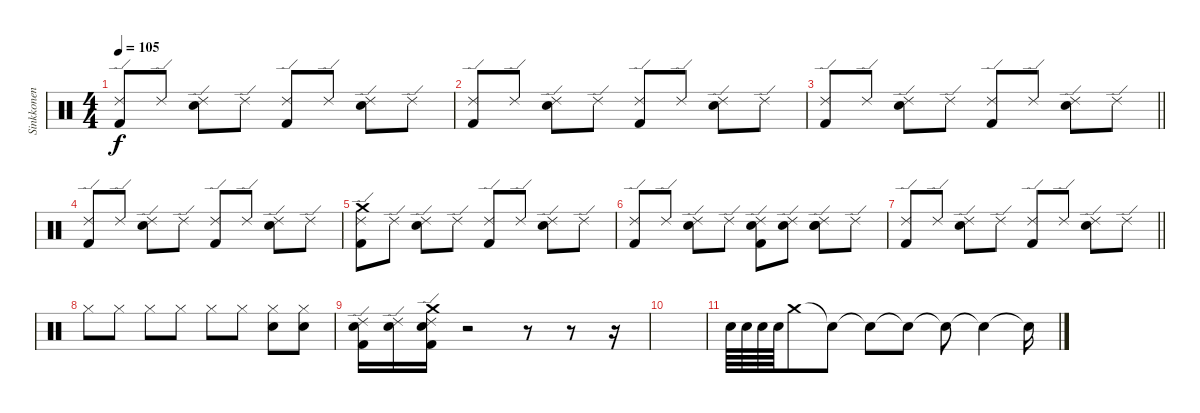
\track ("Sinkkonen" "Sinkkonen") {instrument percussion}
\staff {score}
\articulation defaults
\ts (4 4)
\tempo 105
\clef neutral
\ks c
("Ride (edge) 2" "Kick (hit) 2").8{dy f} "Ride (edge) 2".8 ("Ride (edge) 2" "Electric Snare (hit)").8 "Ride (edge) 2".8 ("Ride (edge) 2" "Kick (hit) 2").8 "Ride (edge) 2".8 ("Ride (edge) 2" "Electric Snare (hit)").8 "Ride (edge) 2".8 |
("Ride (edge) 2" "Kick (hit) 2").8 "Ride (edge) 2".8 ("Ride (edge) 2" "Electric Snare (hit)").8 "Ride (edge) 2".8 ("Ride (edge) 2" "Kick (hit) 2").8 "Ride (edge) 2".8 ("Ride (edge) 2" "Electric Snare (hit)").8 "Ride (edge) 2".8 |
\barLineRight lightlight
("Ride (edge) 2" "Kick (hit) 2").8 "Ride (edge) 2".8 ("Ride (edge) 2" "Electric Snare (hit)").8 "Ride (edge) 2".8 ("Ride (edge) 2" "Kick (hit) 2").8 "Ride (edge) 2".8 ("Ride (edge) 2" "Electric Snare (hit)").8 "Ride (edge) 2".8 |
("Ride (edge) 2" "Kick (hit) 2").8 "Ride (edge) 2".8 ("Ride (edge) 2" "Electric Snare (hit)").8 "Ride (edge) 2".8 ("Ride (edge) 2" "Kick (hit) 2").8 "Ride (edge) 2".8 ("Ride (edge) 2" "Electric Snare (hit)").8 "Ride (edge) 2".8 |
("Crash medium (hit)" "Ride (edge) 2" "Kick (hit) 2").8 "Ride (edge) 2".8 ("Ride (edge) 2" "Electric Snare (hit)").8 "Ride (edge) 2".8 ("Ride (edge) 2" "Kick (hit) 2").8 "Ride (edge) 2".8 ("Ride (edge) 2" "Electric Snare (hit)").8 "Ride (edge) 2".8 |
("Ride (edge) 2" "Kick (hit) 2").8 "Ride (edge) 2".8 ("Ride (edge) 2" "Electric Snare (hit)").8 "Ride (edge) 2".8 ("Ride (edge) 2" "Electric Snare (hit)" "Kick (hit) 2").8 ("Ride (edge) 2" "Electric Snare (hit)").8 ("Ride (edge) 2" "Electric Snare (hit)" "Electric Snare (hit)").8 "Ride (edge) 2".8 |
\barLineRight lightlight
("Ride (edge) 2" "Kick (hit) 2").8 "Ride (edge) 2".8 ("Ride (edge) 2" "Electric Snare (hit)").8 "Ride (edge) 2".8 ("Ride (edge) 2" "Kick (hit) 2").8 "Ride (edge) 2".8 ("Ride (edge) 2" "Electric Snare (hit)").8 "Ride (edge) 2".8 |
"Hi-Hat (closed)".8 "Hi-Hat (closed)".8 "Hi-Hat (closed)".8 "Hi-Hat (closed)".8 "Hi-Hat (closed)".8 "Hi-Hat (closed)".8 ("Hi-Hat (closed)" "Electric Snare (hit)").8 ("Hi-Hat (closed)" "Electric Snare (hit)").8 |
("Ride (edge) 2" "Electric Snare (hit)" "Kick (hit) 2").16 ("Ride (edge) 2" "Electric Snare (hit)").16 ("Crash medium (hit)" "Ride (edge) 2" "Electric Snare (hit)" "Kick (hit) 2").16 r.2 r.8 r.8 r.16 |
|
"Electric Snare (hit)".64 "Electric Snare (hit)".64 "Electric Snare (hit)".64 "Electric Snare (hit)".64 "Crash medium (hit)".8 "Snare (hit)"{t}.8 "Snare (hit)"{t}.8 "Snare (hit)"{t}.8 "Snare (hit)"{t}.8 "Snare (hit)"{t}.4 "Snare (hit)"{t}.16
